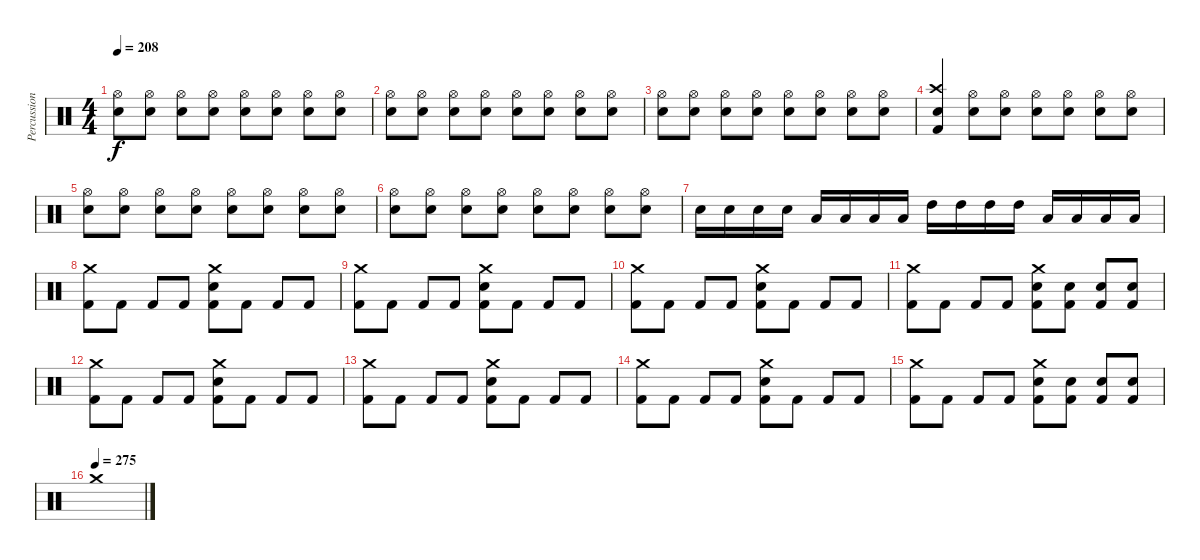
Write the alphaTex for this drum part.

\track ("Percussion" "Percussion") {instrument percussion}
\staff {score}
\articulation defaults
\ts (4 4)
\tempo 208
\clef neutral
\ks c
("Hi-Hat (open)" "Electric Snare (hit)").8{dy f} ("Hi-Hat (open)" "Electric Snare (hit)").8 ("Hi-Hat (open)" "Electric Snare (hit)").8 ("Hi-Hat (open)" "Electric Snare (hit)").8 ("Hi-Hat (open)" "Electric Snare (hit)").8 ("Hi-Hat (open)" "Electric Snare (hit)").8 ("Hi-Hat (open)" "Electric Snare (hit)").8 ("Hi-Hat (open)" "Electric Snare (hit)").8 |
("Hi-Hat (open)" "Electric Snare (hit)").8 ("Hi-Hat (open)" "Electric Snare (hit)").8 ("Hi-Hat (open)" "Electric Snare (hit)").8 ("Hi-Hat (open)" "Electric Snare (hit)").8 ("Hi-Hat (open)" "Electric Snare (hit)").8 ("Hi-Hat (open)" "Electric Snare (hit)").8 ("Hi-Hat (open)" "Electric Snare (hit)").8 ("Hi-Hat (open)" "Electric Snare (hit)").8 |
("Hi-Hat (open)" "Electric Snare (hit)").8 ("Hi-Hat (open)" "Electric Snare (hit)").8 ("Hi-Hat (open)" "Electric Snare (hit)").8 ("Hi-Hat (open)" "Electric Snare (hit)").8 ("Hi-Hat (open)" "Electric Snare (hit)").8 ("Hi-Hat (open)" "Electric Snare (hit)").8 ("Hi-Hat (open)" "Electric Snare (hit)").8 ("Hi-Hat (open)" "Electric Snare (hit)").8 |
("Crash high (hit)" "Electric Snare (hit)" "Kick (hit) 2").4 ("Hi-Hat (open)" "Electric Snare (hit)").8 ("Hi-Hat (open)" "Electric Snare (hit)").8 ("Hi-Hat (open)" "Electric Snare (hit)").8 ("Hi-Hat (open)" "Electric Snare (hit)").8 ("Hi-Hat (open)" "Electric Snare (hit)").8 ("Hi-Hat (open)" "Electric Snare (hit)").8 |
("Hi-Hat (open)" "Electric Snare (hit)").8 ("Hi-Hat (open)" "Electric Snare (hit)").8 ("Hi-Hat (open)" "Electric Snare (hit)").8 ("Hi-Hat (open)" "Electric Snare (hit)").8 ("Hi-Hat (open)" "Electric Snare (hit)").8 ("Hi-Hat (open)" "Electric Snare (hit)").8 ("Hi-Hat (open)" "Electric Snare (hit)").8 ("Hi-Hat (open)" "Electric Snare (hit)").8 |
("Hi-Hat (open)" "Electric Snare (hit)").8 ("Hi-Hat (open)" "Electric Snare (hit)").8 ("Hi-Hat (open)" "Electric Snare (hit)").8 ("Hi-Hat (open)" "Electric Snare (hit)").8 ("Hi-Hat (open)" "Electric Snare (hit)").8 ("Hi-Hat (open)" "Electric Snare (hit)").8 ("Hi-Hat (open)" "Electric Snare (hit)").8 ("Hi-Hat (open)" "Electric Snare (hit)").8 |
"Electric Snare (hit)".16 "Electric Snare (hit)".16 "Electric Snare (hit)".16 "Electric Snare (hit)".16 "Low Floor Tom (hit)".16 "Low Floor Tom (hit)".16 "Low Floor Tom (hit)".16 "Low Floor Tom (hit)".16 "High Tom (hit)".16 "High Tom (hit)".16 "High Tom (hit)".16 "High Tom (hit)".16 "Low Tom (hit)".16 "Low Tom (hit)".16 "Low Tom (hit)".16 "Low Tom (hit)".16 |
("Crash medium (hit)" "Kick (hit) 2").8 "Kick (hit) 2".8 "Kick (hit) 2".8 "Kick (hit) 2".8 ("Crash medium (hit)" "Electric Snare (hit)" "Kick (hit) 2").8 "Kick (hit) 2".8 "Kick (hit) 2".8 "Kick (hit) 2".8 |
("Crash medium (hit)" "Kick (hit) 2").8 "Kick (hit) 2".8 "Kick (hit) 2".8 "Kick (hit) 2".8 ("Crash medium (hit)" "Electric Snare (hit)" "Kick (hit) 2").8 "Kick (hit) 2".8 "Kick (hit) 2".8 "Kick (hit) 2".8 |
("Crash medium (hit)" "Kick (hit) 2").8 "Kick (hit) 2".8 "Kick (hit) 2".8 "Kick (hit) 2".8 ("Crash medium (hit)" "Electric Snare (hit)" "Kick (hit) 2").8 "Kick (hit) 2".8 "Kick (hit) 2".8 "Kick (hit) 2".8 |
("Crash medium (hit)" "Kick (hit) 2").8 "Kick (hit) 2".8 "Kick (hit) 2".8 "Kick (hit) 2".8 ("Crash medium (hit)" "Electric Snare (hit)" "Kick (hit) 2").8 ("Electric Snare (hit)" "Kick (hit) 2").8 ("Electric Snare (hit)" "Kick (hit) 2").8 ("Electric Snare (hit)" "Kick (hit) 2").8 |
("Crash medium (hit)" "Kick (hit) 2").8 "Kick (hit) 2".8 "Kick (hit) 2".8 "Kick (hit) 2".8 ("Crash medium (hit)" "Electric Snare (hit)" "Kick (hit) 2").8 "Kick (hit) 2".8 "Kick (hit) 2".8 "Kick (hit) 2".8 |
("Crash medium (hit)" "Kick (hit) 2").8 "Kick (hit) 2".8 "Kick (hit) 2".8 "Kick (hit) 2".8 ("Crash medium (hit)" "Electric Snare (hit)" "Kick (hit) 2").8 "Kick (hit) 2".8 "Kick (hit) 2".8 "Kick (hit) 2".8 |
("Crash medium (hit)" "Kick (hit) 2").8 "Kick (hit) 2".8 "Kick (hit) 2".8 "Kick (hit) 2".8 ("Crash medium (hit)" "Electric Snare (hit)" "Kick (hit) 2").8 "Kick (hit) 2".8 "Kick (hit) 2".8 "Kick (hit) 2".8 |
("Crash medium (hit)" "Kick (hit) 2").8 "Kick (hit) 2".8 "Kick (hit) 2".8 "Kick (hit) 2".8 ("Crash medium (hit)" "Electric Snare (hit)" "Kick (hit) 2").8 ("Electric Snare (hit)" "Kick (hit) 2").8 ("Electric Snare (hit)" "Kick (hit) 2").8 ("Electric Snare (hit)" "Kick (hit) 2").8 |
\tempo (275)
"Crash medium (hit)".1
